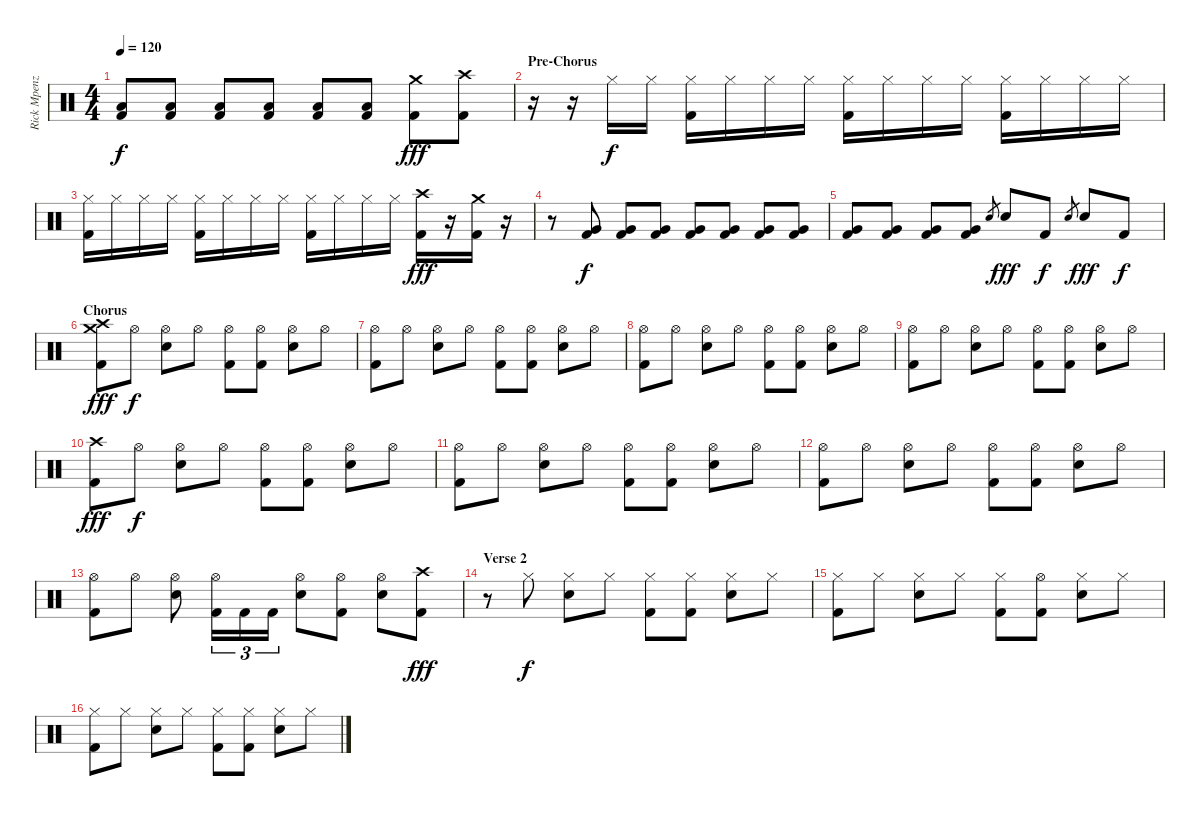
\track ("Rick Mpenza" "Rick Mpenz") {instrument percussion}
\staff {score}
\articulation defaults
\ts (4 4)
\tempo 120
\clef neutral
\ks c
("Low Floor Tom (hit)" "Kick (hit) 2").8{dy f} ("Low Floor Tom (hit)" "Kick (hit) 2").8 ("Low Floor Tom (hit)" "Kick (hit) 2").8 ("Low Floor Tom (hit)" "Kick (hit) 2").8 ("Low Floor Tom (hit)" "Kick (hit) 2").8 ("Low Floor Tom (hit)" "Kick (hit) 2").8 ("Crash medium (hit)" "Kick (hit) 2").8{dy fff} ("Crash high (hit)" "Kick (hit) 2").8 |
\section ("" "Pre-Chorus")
r.16 r.16 "Hi-Hat (closed)".16{dy f} "Hi-Hat (closed)".16 ("Hi-Hat (closed)" "Kick (hit) 2").16 "Hi-Hat (closed)".16 "Hi-Hat (closed)".16 "Hi-Hat (closed)".16 ("Hi-Hat (closed)" "Kick (hit) 2").16 "Hi-Hat (closed)".16 "Hi-Hat (closed)".16 "Hi-Hat (closed)".16 ("Hi-Hat (closed)" "Kick (hit) 2").16 "Hi-Hat (closed)".16 "Hi-Hat (closed)".16 "Hi-Hat (closed)".16 |
("Hi-Hat (closed)" "Kick (hit) 2").16 "Hi-Hat (closed)".16 "Hi-Hat (closed)".16 "Hi-Hat (closed)".16 ("Hi-Hat (closed)" "Kick (hit) 2").16 "Hi-Hat (closed)".16 "Hi-Hat (closed)".16 "Hi-Hat (closed)".16 ("Hi-Hat (closed)" "Kick (hit) 2").16 "Hi-Hat (closed)".16 "Hi-Hat (closed)".16 "Hi-Hat (closed)".16 ("Crash high (hit)" "Kick (hit) 2").16{dy fff} r.16 ("Crash medium (hit)" "Kick (hit) 2").16 r.16 |
r.8 ("Very Low Tom (hit)" "Kick (hit) 2").8{dy f} ("Very Low Tom (hit)" "Kick (hit) 2").8 ("Very Low Tom (hit)" "Kick (hit) 2").8 ("Very Low Tom (hit)" "Kick (hit) 2").8 ("Very Low Tom (hit)" "Kick (hit) 2").8 ("Very Low Tom (hit)" "Kick (hit) 2").8 ("Very Low Tom (hit)" "Kick (hit) 2").8 |
("Very Low Tom (hit)" "Kick (hit) 2").8 ("Very Low Tom (hit)" "Kick (hit) 2").8 ("Very Low Tom (hit)" "Kick (hit) 2").8 ("Very Low Tom (hit)" "Kick (hit) 2").8 "Snare (hit) 2".8{gr} "Snare (hit) 2".8{dy fff} "Kick (hit) 2".8{dy f} "Snare (hit) 2".8{gr} "Snare (hit) 2".8{dy fff} "Kick (hit) 2".8{dy f} |
\section ("" "Chorus")
("Crash medium (hit)" "Crash high (hit)" "Kick (hit) 2").8{dy fff} "Hi-Hat (open)".8{dy f} ("Hi-Hat (open)" "Snare (hit) 2").8 "Hi-Hat (open)".8 ("Hi-Hat (open)" "Kick (hit) 2").8 ("Hi-Hat (open)" "Kick (hit) 2").8 ("Hi-Hat (open)" "Snare (hit) 2").8 "Hi-Hat (open)".8 |
("Hi-Hat (open)" "Kick (hit) 2").8 "Hi-Hat (open)".8 ("Hi-Hat (open)" "Snare (hit) 2").8 "Hi-Hat (open)".8 ("Hi-Hat (open)" "Kick (hit) 2").8 ("Hi-Hat (open)" "Kick (hit) 2").8 ("Hi-Hat (open)" "Snare (hit) 2").8 "Hi-Hat (open)".8 |
("Hi-Hat (open)" "Kick (hit) 2").8 "Hi-Hat (open)".8 ("Hi-Hat (open)" "Snare (hit) 2").8 "Hi-Hat (open)".8 ("Hi-Hat (open)" "Kick (hit) 2").8 ("Hi-Hat (open)" "Kick (hit) 2").8 ("Hi-Hat (open)" "Snare (hit) 2").8 "Hi-Hat (open)".8 |
("Hi-Hat (open)" "Kick (hit) 2").8 "Hi-Hat (open)".8 ("Hi-Hat (open)" "Snare (hit) 2").8 "Hi-Hat (open)".8 ("Hi-Hat (open)" "Kick (hit) 2").8 ("Hi-Hat (open)" "Kick (hit) 2").8 ("Hi-Hat (open)" "Snare (hit) 2").8 "Hi-Hat (open)".8 |
("Crash high (hit)" "Kick (hit) 2").8{dy fff} "Hi-Hat (open)".8{dy f} ("Hi-Hat (open)" "Snare (hit) 2").8 "Hi-Hat (open)".8 ("Hi-Hat (open)" "Kick (hit) 2").8 ("Hi-Hat (open)" "Kick (hit) 2").8 ("Hi-Hat (open)" "Snare (hit) 2").8 "Hi-Hat (open)".8 |
("Hi-Hat (open)" "Kick (hit) 2").8 "Hi-Hat (open)".8 ("Hi-Hat (open)" "Snare (hit) 2").8 "Hi-Hat (open)".8 ("Hi-Hat (open)" "Kick (hit) 2").8 ("Hi-Hat (open)" "Kick (hit) 2").8 ("Hi-Hat (open)" "Snare (hit) 2").8 "Hi-Hat (open)".8 |
("Hi-Hat (open)" "Kick (hit) 2").8 "Hi-Hat (open)".8 ("Hi-Hat (open)" "Snare (hit) 2").8 "Hi-Hat (open)".8 ("Hi-Hat (open)" "Kick (hit) 2").8 ("Hi-Hat (open)" "Kick (hit) 2").8 ("Hi-Hat (open)" "Snare (hit) 2").8 "Hi-Hat (open)".8 |
("Hi-Hat (open)" "Kick (hit) 2").8 "Hi-Hat (open)".8 ("Hi-Hat (open)" "Snare (hit) 2").8 ("Hi-Hat (open)" "Kick (hit) 2").16{tu (3 2)} "Kick (hit) 2".16{tu (3 2)} "Kick (hit) 2".16{tu (3 2)} ("Hi-Hat (open)" "Snare (hit) 2").8 ("Hi-Hat (open)" "Kick (hit) 2").8 ("Hi-Hat (open)" "Snare (hit) 2").8 ("Crash high (hit)" "Kick (hit) 2").8{dy fff} |
\section ("" "Verse 2")
r.8 "Hi-Hat (closed)".8{dy f} ("Hi-Hat (closed)" "Snare (hit) 2").8 "Hi-Hat (closed)".8 ("Hi-Hat (closed)" "Kick (hit) 2").8 ("Hi-Hat (closed)" "Kick (hit) 2").8 ("Hi-Hat (closed)" "Snare (hit) 2").8 "Hi-Hat (closed)".8 |
("Hi-Hat (closed)" "Kick (hit) 2").8 "Hi-Hat (closed)".8 ("Hi-Hat (closed)" "Snare (hit) 2").8 "Hi-Hat (closed)".8 ("Hi-Hat (closed)" "Kick (hit) 2").8 ("Hi-Hat (open)" "Kick (hit) 2").8 ("Hi-Hat (closed)" "Snare (hit) 2").8 "Hi-Hat (closed)".8 |
("Hi-Hat (closed)" "Kick (hit) 2").8 "Hi-Hat (closed)".8 ("Hi-Hat (closed)" "Snare (hit) 2").8 "Hi-Hat (closed)".8 ("Hi-Hat (closed)" "Kick (hit) 2").8 ("Hi-Hat (closed)" "Kick (hit) 2").8 ("Hi-Hat (closed)" "Snare (hit) 2").8 "Hi-Hat (closed)".8
